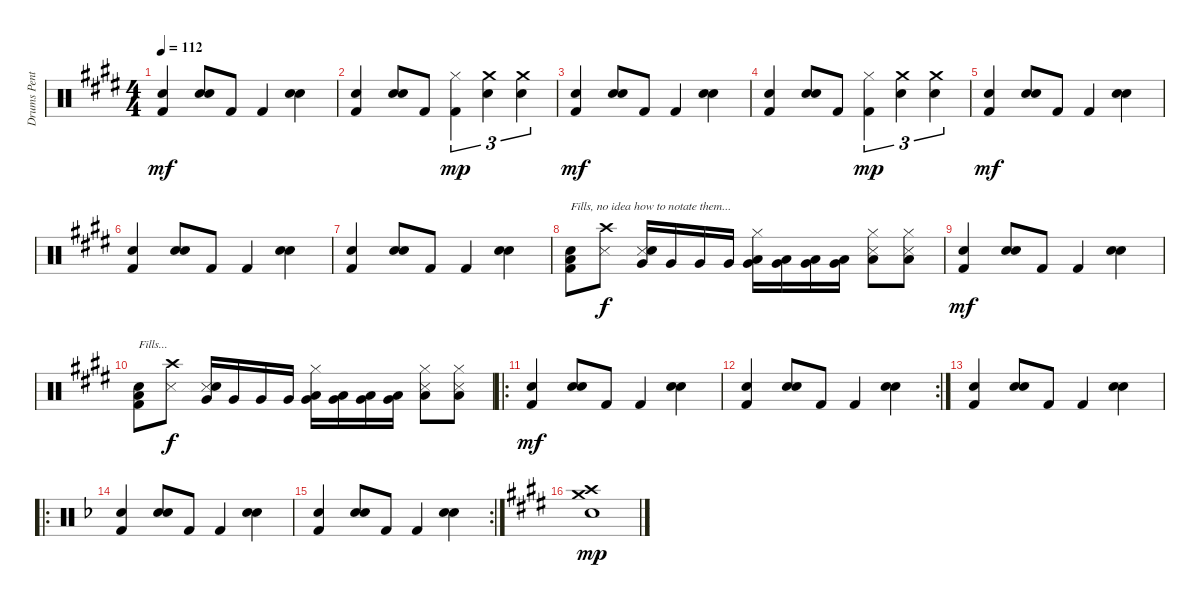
\track ("Drums Pentti Glan" "Drums Pent") {instrument percussion}
\staff {score}
\articulation defaults
\ts (4 4)
\tempo 112
\clef neutral
\ks e
("Hand Clap (hit)" "Kick (hit) 2").4{dy mf} ("Electric Snare (hit)" "Snare (hit) 2").8 "Kick (hit) 2".8 "Kick (hit) 2".4 ("Electric Snare (hit)" "Snare (hit) 2").4 |
("Hand Clap (hit)" "Kick (hit) 2").4 ("Electric Snare (hit)" "Snare (hit) 2").8 "Kick (hit) 2".8 ("Hi-Hat (closed)" "Kick (hit) 2").4{tu (3 2) dy mp} ("Crash medium (hit)" "Electric Snare (hit)").4{tu (3 2)} ("Crash medium (hit)" "Electric Snare (hit)").4{tu (3 2)} |
("Hand Clap (hit)" "Kick (hit) 2").4{dy mf} ("Electric Snare (hit)" "Snare (hit) 2").8 "Kick (hit) 2".8 "Kick (hit) 2".4 ("Electric Snare (hit)" "Snare (hit) 2").4 |
("Hand Clap (hit)" "Kick (hit) 2").4 ("Electric Snare (hit)" "Snare (hit) 2").8 "Kick (hit) 2".8 ("Hi-Hat (closed)" "Kick (hit) 2").4{tu (3 2) dy mp} ("Crash medium (hit)" "Electric Snare (hit)").4{tu (3 2)} ("Crash medium (hit)" "Electric Snare (hit)").4{tu (3 2)} |
("Hand Clap (hit)" "Kick (hit) 2").4{dy mf} ("Electric Snare (hit)" "Snare (hit) 2").8 "Kick (hit) 2".8 "Kick (hit) 2".4 ("Electric Snare (hit)" "Snare (hit) 2").4 |
("Hand Clap (hit)" "Kick (hit) 2").4 ("Electric Snare (hit)" "Snare (hit) 2").8 "Kick (hit) 2".8 "Kick (hit) 2".4 ("Electric Snare (hit)" "Snare (hit) 2").4 |
("Hand Clap (hit)" "Kick (hit) 2").4 ("Electric Snare (hit)" "Snare (hit) 2").8 "Kick (hit) 2".8 "Kick (hit) 2".4 ("Electric Snare (hit)" "Snare (hit) 2").4 |
("Low Tom (hit)" "Hand Clap (hit)" "Kick (hit) 2").8{txt "Fills, no idea how to notate them..."} ("Crash high (hit)" "Snare (side stick) 3").8{dy f} ("Snare (side stick) 3" "Very Low Tom (hit)" "Snare (hit) 2").16 "Very Low Tom (hit)".16 "Very Low Tom (hit)".16 "Very Low Tom (hit)".16 ("Low Tom (hit)" "Very Low Tom (hit)" "Hi-Hat (closed)").16 ("Low Tom (hit)" "Very Low Tom (hit)").16 ("Low Tom (hit)" "Very Low Tom (hit)").16 ("Low Tom (hit)" "Very Low Tom (hit)").16 ("Snare (side stick) 3" "Low Tom (hit)" "Hi-Hat (closed)").8 ("Snare (side stick) 3" "Low Tom (hit)" "Hi-Hat (closed)").8 |
("Hand Clap (hit)" "Kick (hit) 2").4{dy mf} ("Electric Snare (hit)" "Snare (hit) 2").8 "Kick (hit) 2".8 "Kick (hit) 2".4 ("Electric Snare (hit)" "Snare (hit) 2").4 |
("Low Tom (hit)" "Hand Clap (hit)" "Kick (hit) 2").8{txt "Fills..."} ("Crash high (hit)" "Snare (side stick) 3").8{dy f} ("Snare (side stick) 3" "Very Low Tom (hit)" "Snare (hit) 2").16 "Very Low Tom (hit)".16 "Very Low Tom (hit)".16 "Very Low Tom (hit)".16 ("Low Tom (hit)" "Very Low Tom (hit)" "Hi-Hat (closed)").16 ("Low Tom (hit)" "Very Low Tom (hit)").16 ("Low Tom (hit)" "Very Low Tom (hit)").16 ("Low Tom (hit)" "Very Low Tom (hit)").16 ("Snare (side stick) 3" "Low Tom (hit)" "Hi-Hat (closed)").8 ("Snare (side stick) 3" "Low Tom (hit)" "Hi-Hat (closed)").8 |
\ro
("Hand Clap (hit)" "Kick (hit) 2").4{dy mf} ("Electric Snare (hit)" "Snare (hit) 2").8 "Kick (hit) 2".8 "Kick (hit) 2".4 ("Electric Snare (hit)" "Snare (hit) 2").4 |
\rc 2
("Hand Clap (hit)" "Kick (hit) 2").4 ("Electric Snare (hit)" "Snare (hit) 2").8 "Kick (hit) 2".8 "Kick (hit) 2".4 ("Electric Snare (hit)" "Snare (hit) 2").4 |
("Hand Clap (hit)" "Kick (hit) 2").4 ("Electric Snare (hit)" "Snare (hit) 2").8 "Kick (hit) 2".8 "Kick (hit) 2".4 ("Electric Snare (hit)" "Snare (hit) 2").4 |
\ro
\ks f
("Hand Clap (hit)" "Kick (hit) 2").4 ("Electric Snare (hit)" "Snare (hit) 2").8 "Kick (hit) 2".8 "Kick (hit) 2".4 ("Electric Snare (hit)" "Snare (hit) 2").4 |
\rc 2
("Hand Clap (hit)" "Kick (hit) 2").4 ("Electric Snare (hit)" "Snare (hit) 2").8 "Kick (hit) 2".8 "Kick (hit) 2".4 ("Electric Snare (hit)" "Snare (hit) 2").4 |
\ks e
("Crash high (hit)" "Crash medium (hit)" "Electric Snare (hit)").1{dy mp}
